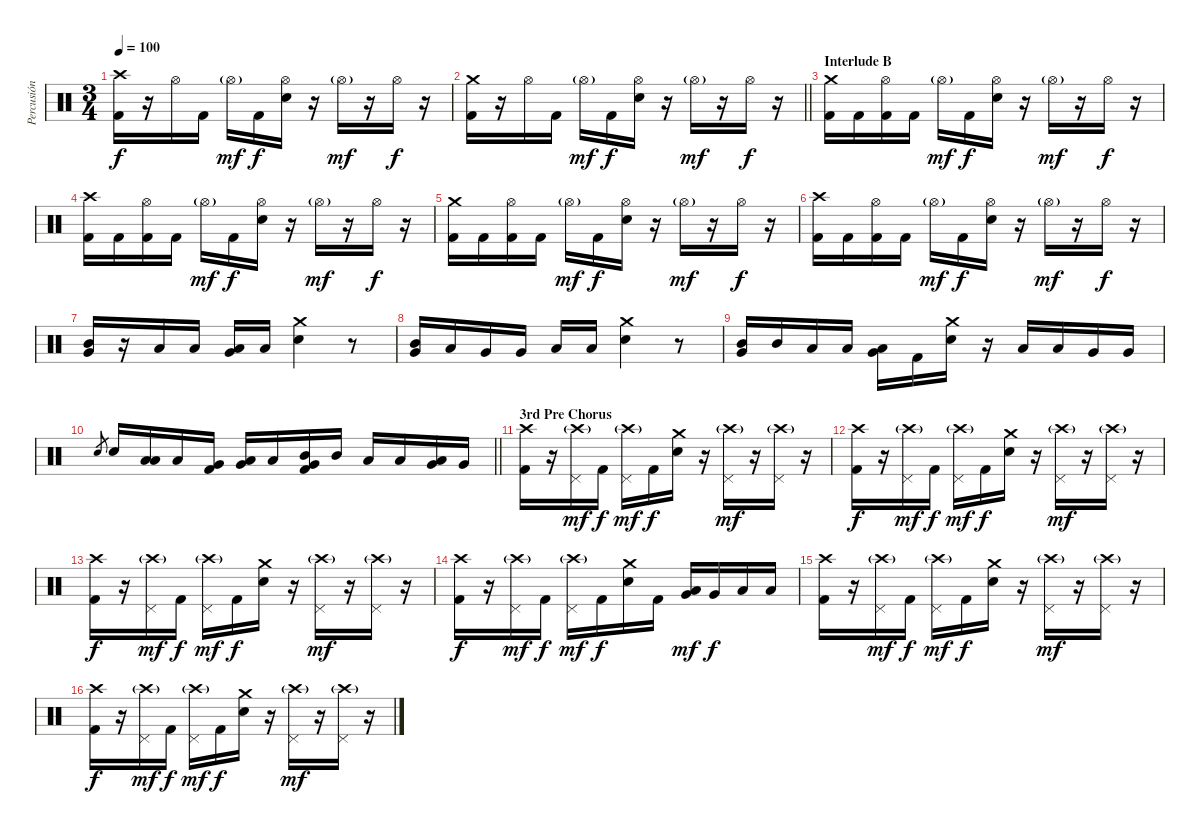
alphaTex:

\track ("Percusión" "Percusión") {instrument percussion}
\staff {score}
\articulation defaults
\ts (3 4)
\tempo 100
\clef neutral
\ks c
("Crash high (hit)" "Kick (hit) 2").16{dy f} r.16 "Hi-Hat (open)".16 "Kick (hit) 2".16 "Hi-Hat (open)"{g}.16{dy mf} "Kick (hit) 2".16{dy f} ("Hi-Hat (open)" "Electric Snare (hit)").16 r.16 "Hi-Hat (open)"{g}.16{dy mf} r.16 "Hi-Hat (open)".16{dy f} r.16 |
\barLineRight lightlight
("Crash medium (hit)" "Kick (hit) 2").16 r.16 "Hi-Hat (open)".16 "Kick (hit) 2".16 "Hi-Hat (open)"{g}.16{dy mf} "Kick (hit) 2".16{dy f} ("Hi-Hat (open)" "Electric Snare (hit)").16 r.16 "Hi-Hat (open)"{g}.16{dy mf} r.16 "Hi-Hat (open)".16{dy f} r.16 |
\section ("" "Interlude B")
("Crash medium (hit)" "Kick (hit) 2").16 "Kick (hit) 2".16 ("Hi-Hat (open)" "Kick (hit) 2").16 "Kick (hit) 2".16 "Hi-Hat (open)"{g}.16{dy mf} "Kick (hit) 2".16{dy f} ("Hi-Hat (open)" "Electric Snare (hit)").16 r.16 "Hi-Hat (open)"{g}.16{dy mf} r.16 "Hi-Hat (open)".16{dy f} r.16 |
("Crash high (hit)" "Kick (hit) 2").16 "Kick (hit) 2".16 ("Hi-Hat (open)" "Kick (hit) 2").16 "Kick (hit) 2".16 "Hi-Hat (open)"{g}.16{dy mf} "Kick (hit) 2".16{dy f} ("Hi-Hat (open)" "Electric Snare (hit)").16 r.16 "Hi-Hat (open)"{g}.16{dy mf} r.16 "Hi-Hat (open)".16{dy f} r.16 |
("Crash medium (hit)" "Kick (hit) 2").16 "Kick (hit) 2".16 ("Hi-Hat (open)" "Kick (hit) 2").16 "Kick (hit) 2".16 "Hi-Hat (open)"{g}.16{dy mf} "Kick (hit) 2".16{dy f} ("Hi-Hat (open)" "Electric Snare (hit)").16 r.16 "Hi-Hat (open)"{g}.16{dy mf} r.16 "Hi-Hat (open)".16{dy f} r.16 |
("Crash high (hit)" "Kick (hit) 2").16 "Kick (hit) 2".16 ("Hi-Hat (open)" "Kick (hit) 2").16 "Kick (hit) 2".16 "Hi-Hat (open)"{g}.16{dy mf} "Kick (hit) 2".16{dy f} ("Hi-Hat (open)" "Electric Snare (hit)").16 r.16 "Hi-Hat (open)"{g}.16{dy mf} r.16 "Hi-Hat (open)".16{dy f} r.16 |
("Mid Tom (hit)" "Very Low Tom (hit)").16 r.16 "Low Tom (hit)".16 "Low Tom (hit)".16 ("Very Low Tom (hit)" "Low Floor Tom (hit)").16 "Low Floor Tom (hit)".16 ("Crash medium (hit)" "Electric Snare (hit)").4 r.8 |
("Mid Tom (hit)" "Very Low Tom (hit)").16 "Low Tom (hit)".16 "Very Low Tom (hit)".16 "Very Low Tom (hit)".16 "Low Floor Tom (hit)".16 "Low Floor Tom (hit)".16 ("Crash medium (hit)" "Electric Snare (hit)").4 r.8 |
("Mid Tom (hit)" "Very Low Tom (hit)").16 "Mid Tom (hit)".16 "Low Tom (hit)".16 "Low Tom (hit)".16 ("Very Low Tom (hit)" "Low Floor Tom (hit)").16 "Kick (hit) 2".16 ("Crash medium (hit)" "Electric Snare (hit)").16 r.16 "Low Tom (hit)".16 "Low Tom (hit)".16 "Very Low Tom (hit)".16 "Very Low Tom (hit)".16 |
\barLineRight lightlight "Electric Snare (hit)".8{gr} "Electric Snare (hit)".16
("Low Tom (hit)" "Low Floor Tom (hit)").16 "Low Tom (hit)".16 ("Very Low Tom (hit)" "Kick (hit) 2").16 ("Very Low Tom (hit)" "Low Floor Tom (hit)").16 "Low Floor Tom (hit)".16 ("Mid Tom (hit)" "Very Low Tom (hit)" "Kick (hit) 2").16 "Mid Tom (hit)".16 "Low Tom (hit)".16 "Low Tom (hit)".16 ("Very Low Tom (hit)" "Low Floor Tom (hit)").16 "Very Low Tom (hit)".16 |
\section ("" "3rd Pre Chorus")
("Crash high (hit)" "Kick (hit) 2").16 r.16 ("Crash high (hit)"{g} "Pedal Hi-Hat (hit)").16{dy mf} "Kick (hit) 2".16{dy f} ("Crash high (hit)"{g} "Pedal Hi-Hat (hit)").16{dy mf} "Kick (hit) 2".16{dy f} ("Crash medium (hit)" "Electric Snare (hit)").16 r.16 ("Crash high (hit)"{g} "Pedal Hi-Hat (hit)").16{dy mf} r.16 ("Crash high (hit)"{g} "Pedal Hi-Hat (hit)").16 r.16 |
("Crash high (hit)" "Kick (hit) 2").16{dy f} r.16 ("Crash high (hit)"{g} "Pedal Hi-Hat (hit)").16{dy mf} "Kick (hit) 2".16{dy f} ("Crash high (hit)"{g} "Pedal Hi-Hat (hit)").16{dy mf} "Kick (hit) 2".16{dy f} ("Crash medium (hit)" "Electric Snare (hit)").16 r.16 ("Crash high (hit)"{g} "Pedal Hi-Hat (hit)").16{dy mf} r.16 ("Crash high (hit)"{g} "Pedal Hi-Hat (hit)").16 r.16 |
("Crash high (hit)" "Kick (hit) 2").16{dy f} r.16 ("Crash high (hit)"{g} "Pedal Hi-Hat (hit)").16{dy mf} "Kick (hit) 2".16{dy f} ("Crash high (hit)"{g} "Pedal Hi-Hat (hit)").16{dy mf} "Kick (hit) 2".16{dy f} ("Crash medium (hit)" "Electric Snare (hit)").16 r.16 ("Crash high (hit)"{g} "Pedal Hi-Hat (hit)").16{dy mf} r.16 ("Crash high (hit)"{g} "Pedal Hi-Hat (hit)").16 r.16 |
("Crash high (hit)" "Kick (hit) 2").16{dy f} r.16 ("Crash high (hit)"{g} "Pedal Hi-Hat (hit)").16{dy mf} "Kick (hit) 2".16{dy f} ("Crash high (hit)"{g} "Pedal Hi-Hat (hit)").16{dy mf} "Kick (hit) 2".16{dy f} ("Crash medium (hit)" "Electric Snare (hit)").16 "Kick (hit) 2".16 ("Low Tom (hit)" "Very Low Tom (hit)").16{dy mf} "Very Low Tom (hit)".16{dy f} "Low Floor Tom (hit)".16 "Low Floor Tom (hit)".16 |
("Crash high (hit)" "Kick (hit) 2").16 r.16 ("Crash high (hit)"{g} "Pedal Hi-Hat (hit)").16{dy mf} "Kick (hit) 2".16{dy f} ("Crash high (hit)"{g} "Pedal Hi-Hat (hit)").16{dy mf} "Kick (hit) 2".16{dy f} ("Crash medium (hit)" "Electric Snare (hit)").16 r.16 ("Crash high (hit)"{g} "Pedal Hi-Hat (hit)").16{dy mf} r.16 ("Crash high (hit)"{g} "Pedal Hi-Hat (hit)").16 r.16 |
("Crash high (hit)" "Kick (hit) 2").16{dy f} r.16 ("Crash high (hit)"{g} "Pedal Hi-Hat (hit)").16{dy mf} "Kick (hit) 2".16{dy f} ("Crash high (hit)"{g} "Pedal Hi-Hat (hit)").16{dy mf} "Kick (hit) 2".16{dy f} ("Crash medium (hit)" "Electric Snare (hit)").16 r.16 ("Crash high (hit)"{g} "Pedal Hi-Hat (hit)").16{dy mf} r.16 ("Crash high (hit)"{g} "Pedal Hi-Hat (hit)").16 r.16
